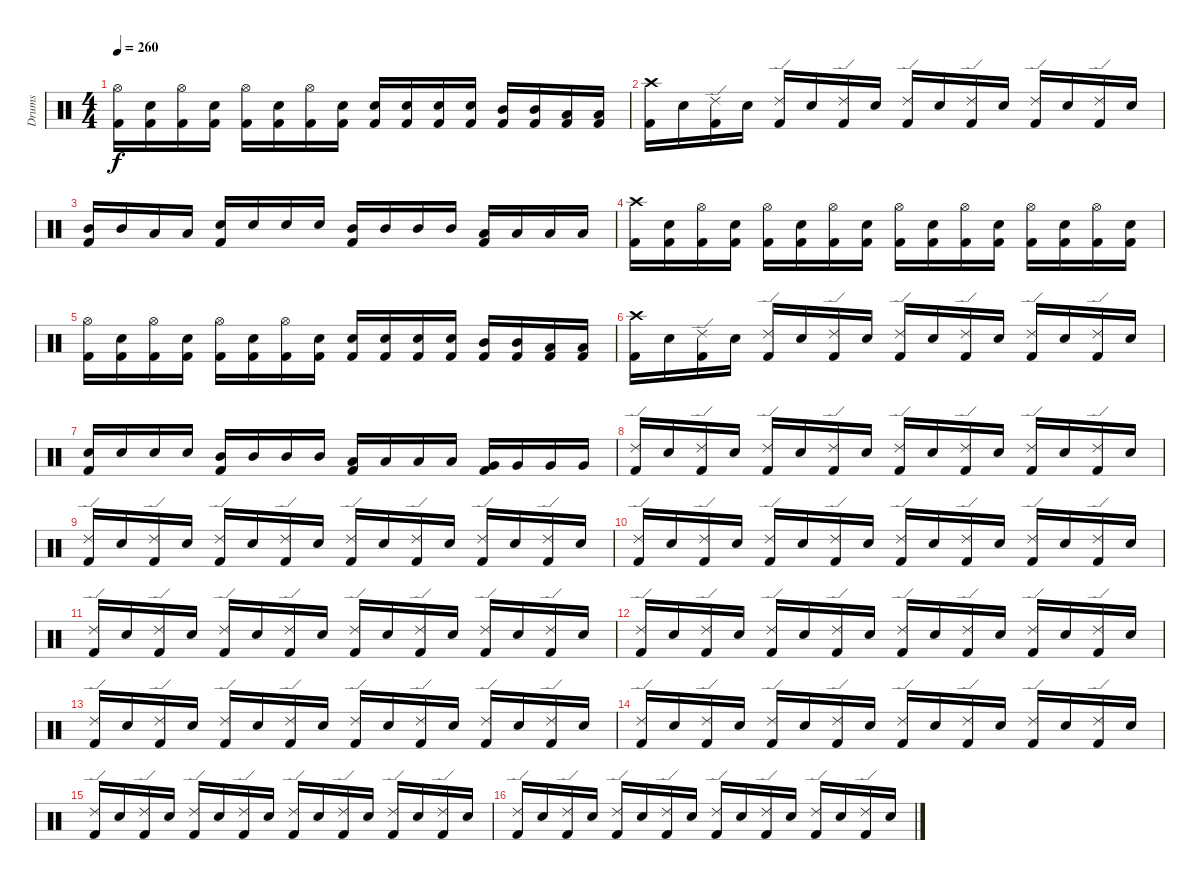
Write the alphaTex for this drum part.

\track ("Drums" "Drums") {instrument percussion}
\staff {score}
\articulation defaults
\ts (4 4)
\tempo 260
\clef neutral
\ks c
("Hi-Hat (open)" "Kick (hit) 2").16{dy f} ("Snare (hit) 2" "Kick (hit) 2").16 ("Hi-Hat (open)" "Kick (hit) 2").16 ("Snare (hit) 2" "Kick (hit) 2").16 ("Hi-Hat (open)" "Kick (hit) 2").16 ("Snare (hit) 2" "Kick (hit) 2").16 ("Hi-Hat (open)" "Kick (hit) 2").16 ("Snare (hit) 2" "Kick (hit) 2").16 ("Snare (hit) 2" "Kick (hit) 2").16 ("Snare (hit) 2" "Kick (hit) 2").16 ("Snare (hit) 2" "Kick (hit) 2").16 ("Snare (hit) 2" "Kick (hit) 2").16 ("Mid Tom (hit)" "Kick (hit) 2").16 ("Mid Tom (hit)" "Kick (hit) 2").16 ("Low Tom (hit)" "Kick (hit) 2").16 ("Low Tom (hit)" "Kick (hit) 2").16 |
("Crash high (hit)" "Kick (hit) 2").16 "Snare (hit) 2".16 ("Ride (edge) 2" "Kick (hit) 2").16 "Snare (hit) 2".16 ("Ride (edge) 2" "Kick (hit) 2").16 "Snare (hit) 2".16 ("Ride (edge) 2" "Kick (hit) 2").16 "Snare (hit) 2".16 ("Ride (edge) 2" "Kick (hit) 2").16 "Snare (hit) 2".16 ("Ride (edge) 2" "Kick (hit) 2").16 "Snare (hit) 2".16 ("Ride (edge) 2" "Kick (hit) 2").16 "Snare (hit) 2".16 ("Ride (edge) 2" "Kick (hit) 2").16 "Snare (hit) 2".16 |
("Mid Tom (hit)" "Kick (hit) 2").16 "Mid Tom (hit)".16 "Low Tom (hit)".16 "Low Tom (hit)".16 ("Snare (hit) 2" "Kick (hit) 2").16 "Snare (hit) 2".16 "Snare (hit) 2".16 "Snare (hit) 2".16 ("Mid Tom (hit)" "Kick (hit) 2").16 "Mid Tom (hit)".16 "Mid Tom (hit)".16 "Mid Tom (hit)".16 ("Low Tom (hit)" "Kick (hit) 2").16 "Low Tom (hit)".16 "Low Tom (hit)".16 "Low Tom (hit)".16 |
("Crash high (hit)" "Kick (hit) 2").16 ("Snare (hit) 2" "Kick (hit) 2").16 ("Hi-Hat (open)" "Kick (hit) 2").16 ("Snare (hit) 2" "Kick (hit) 2").16 ("Hi-Hat (open)" "Kick (hit) 2").16 ("Snare (hit) 2" "Kick (hit) 2").16 ("Hi-Hat (open)" "Kick (hit) 2").16 ("Snare (hit) 2" "Kick (hit) 2").16 ("Hi-Hat (open)" "Kick (hit) 2").16 ("Snare (hit) 2" "Kick (hit) 2").16 ("Hi-Hat (open)" "Kick (hit) 2").16 ("Snare (hit) 2" "Kick (hit) 2").16 ("Hi-Hat (open)" "Kick (hit) 2").16 ("Snare (hit) 2" "Kick (hit) 2").16 ("Hi-Hat (open)" "Kick (hit) 2").16 ("Snare (hit) 2" "Kick (hit) 2").16 |
("Hi-Hat (open)" "Kick (hit) 2").16 ("Snare (hit) 2" "Kick (hit) 2").16 ("Hi-Hat (open)" "Kick (hit) 2").16 ("Snare (hit) 2" "Kick (hit) 2").16 ("Hi-Hat (open)" "Kick (hit) 2").16 ("Snare (hit) 2" "Kick (hit) 2").16 ("Hi-Hat (open)" "Kick (hit) 2").16 ("Snare (hit) 2" "Kick (hit) 2").16 ("Snare (hit) 2" "Kick (hit) 2").16 ("Snare (hit) 2" "Kick (hit) 2").16 ("Snare (hit) 2" "Kick (hit) 2").16 ("Snare (hit) 2" "Kick (hit) 2").16 ("Mid Tom (hit)" "Kick (hit) 2").16 ("Mid Tom (hit)" "Kick (hit) 2").16 ("Low Tom (hit)" "Kick (hit) 2").16 ("Low Tom (hit)" "Kick (hit) 2").16 |
("Crash high (hit)" "Kick (hit) 2").16 "Snare (hit) 2".16 ("Ride (edge) 2" "Kick (hit) 2").16 "Snare (hit) 2".16 ("Ride (edge) 2" "Kick (hit) 2").16 "Snare (hit) 2".16 ("Ride (edge) 2" "Kick (hit) 2").16 "Snare (hit) 2".16 ("Ride (edge) 2" "Kick (hit) 2").16 "Snare (hit) 2".16 ("Ride (edge) 2" "Kick (hit) 2").16 "Snare (hit) 2".16 ("Ride (edge) 2" "Kick (hit) 2").16 "Snare (hit) 2".16 ("Ride (edge) 2" "Kick (hit) 2").16 "Snare (hit) 2".16 |
("Snare (hit) 2" "Kick (hit) 2").16 "Snare (hit) 2".16 "Snare (hit) 2".16 "Snare (hit) 2".16 ("Mid Tom (hit)" "Kick (hit) 2").16 "Mid Tom (hit)".16 "Mid Tom (hit)".16 "Mid Tom (hit)".16 ("Low Tom (hit)" "Kick (hit) 2").16 "Low Tom (hit)".16 "Low Tom (hit)".16 "Low Tom (hit)".16 ("Very Low Tom (hit)" "Kick (hit) 2").16 "Very Low Tom (hit)".16 "Very Low Tom (hit)".16 "Very Low Tom (hit)".16 |
("Ride (edge) 2" "Kick (hit) 2").16 "Snare (hit) 2".16 ("Ride (edge) 2" "Kick (hit) 2").16 "Snare (hit) 2".16 ("Ride (edge) 2" "Kick (hit) 2").16 "Snare (hit) 2".16 ("Ride (edge) 2" "Kick (hit) 2").16 "Snare (hit) 2".16 ("Ride (edge) 2" "Kick (hit) 2").16 "Snare (hit) 2".16 ("Ride (edge) 2" "Kick (hit) 2").16 "Snare (hit) 2".16 ("Ride (edge) 2" "Kick (hit) 2").16 "Snare (hit) 2".16 ("Ride (edge) 2" "Kick (hit) 2").16 "Snare (hit) 2".16 |
("Ride (edge) 2" "Kick (hit) 2").16 "Snare (hit) 2".16 ("Ride (edge) 2" "Kick (hit) 2").16 "Snare (hit) 2".16 ("Ride (edge) 2" "Kick (hit) 2").16 "Snare (hit) 2".16 ("Ride (edge) 2" "Kick (hit) 2").16 "Snare (hit) 2".16 ("Ride (edge) 2" "Kick (hit) 2").16 "Snare (hit) 2".16 ("Ride (edge) 2" "Kick (hit) 2").16 "Snare (hit) 2".16 ("Ride (edge) 2" "Kick (hit) 2").16 "Snare (hit) 2".16 ("Ride (edge) 2" "Kick (hit) 2").16 "Snare (hit) 2".16 |
("Ride (edge) 2" "Kick (hit) 2").16 "Snare (hit) 2".16 ("Ride (edge) 2" "Kick (hit) 2").16 "Snare (hit) 2".16 ("Ride (edge) 2" "Kick (hit) 2").16 "Snare (hit) 2".16 ("Ride (edge) 2" "Kick (hit) 2").16 "Snare (hit) 2".16 ("Ride (edge) 2" "Kick (hit) 2").16 "Snare (hit) 2".16 ("Ride (edge) 2" "Kick (hit) 2").16 "Snare (hit) 2".16 ("Ride (edge) 2" "Kick (hit) 2").16 "Snare (hit) 2".16 ("Ride (edge) 2" "Kick (hit) 2").16 "Snare (hit) 2".16 |
("Ride (edge) 2" "Kick (hit) 2").16 "Snare (hit) 2".16 ("Ride (edge) 2" "Kick (hit) 2").16 "Snare (hit) 2".16 ("Ride (edge) 2" "Kick (hit) 2").16 "Snare (hit) 2".16 ("Ride (edge) 2" "Kick (hit) 2").16 "Snare (hit) 2".16 ("Ride (edge) 2" "Kick (hit) 2").16 "Snare (hit) 2".16 ("Ride (edge) 2" "Kick (hit) 2").16 "Snare (hit) 2".16 ("Ride (edge) 2" "Kick (hit) 2").16 "Snare (hit) 2".16 ("Ride (edge) 2" "Kick (hit) 2").16 "Snare (hit) 2".16 |
("Ride (edge) 2" "Kick (hit) 2").16 "Snare (hit) 2".16 ("Ride (edge) 2" "Kick (hit) 2").16 "Snare (hit) 2".16 ("Ride (edge) 2" "Kick (hit) 2").16 "Snare (hit) 2".16 ("Ride (edge) 2" "Kick (hit) 2").16 "Snare (hit) 2".16 ("Ride (edge) 2" "Kick (hit) 2").16 "Snare (hit) 2".16 ("Ride (edge) 2" "Kick (hit) 2").16 "Snare (hit) 2".16 ("Ride (edge) 2" "Kick (hit) 2").16 "Snare (hit) 2".16 ("Ride (edge) 2" "Kick (hit) 2").16 "Snare (hit) 2".16 |
("Ride (edge) 2" "Kick (hit) 2").16 "Snare (hit) 2".16 ("Ride (edge) 2" "Kick (hit) 2").16 "Snare (hit) 2".16 ("Ride (edge) 2" "Kick (hit) 2").16 "Snare (hit) 2".16 ("Ride (edge) 2" "Kick (hit) 2").16 "Snare (hit) 2".16 ("Ride (edge) 2" "Kick (hit) 2").16 "Snare (hit) 2".16 ("Ride (edge) 2" "Kick (hit) 2").16 "Snare (hit) 2".16 ("Ride (edge) 2" "Kick (hit) 2").16 "Snare (hit) 2".16 ("Ride (edge) 2" "Kick (hit) 2").16 "Snare (hit) 2".16 |
("Ride (edge) 2" "Kick (hit) 2").16 "Snare (hit) 2".16 ("Ride (edge) 2" "Kick (hit) 2").16 "Snare (hit) 2".16 ("Ride (edge) 2" "Kick (hit) 2").16 "Snare (hit) 2".16 ("Ride (edge) 2" "Kick (hit) 2").16 "Snare (hit) 2".16 ("Ride (edge) 2" "Kick (hit) 2").16 "Snare (hit) 2".16 ("Ride (edge) 2" "Kick (hit) 2").16 "Snare (hit) 2".16 ("Ride (edge) 2" "Kick (hit) 2").16 "Snare (hit) 2".16 ("Ride (edge) 2" "Kick (hit) 2").16 "Snare (hit) 2".16 |
("Ride (edge) 2" "Kick (hit) 2").16 "Snare (hit) 2".16 ("Ride (edge) 2" "Kick (hit) 2").16 "Snare (hit) 2".16 ("Ride (edge) 2" "Kick (hit) 2").16 "Snare (hit) 2".16 ("Ride (edge) 2" "Kick (hit) 2").16 "Snare (hit) 2".16 ("Ride (edge) 2" "Kick (hit) 2").16 "Snare (hit) 2".16 ("Ride (edge) 2" "Kick (hit) 2").16 "Snare (hit) 2".16 ("Ride (edge) 2" "Kick (hit) 2").16 "Snare (hit) 2".16 ("Ride (edge) 2" "Kick (hit) 2").16 "Snare (hit) 2".16 |
("Ride (edge) 2" "Kick (hit) 2").16 "Snare (hit) 2".16 ("Ride (edge) 2" "Kick (hit) 2").16 "Snare (hit) 2".16 ("Ride (edge) 2" "Kick (hit) 2").16 "Snare (hit) 2".16 ("Ride (edge) 2" "Kick (hit) 2").16 "Snare (hit) 2".16 ("Ride (edge) 2" "Kick (hit) 2").16 "Snare (hit) 2".16 ("Ride (edge) 2" "Kick (hit) 2").16 "Snare (hit) 2".16 ("Ride (edge) 2" "Kick (hit) 2").16 "Snare (hit) 2".16 ("Ride (edge) 2" "Kick (hit) 2").16 "Snare (hit) 2".16
